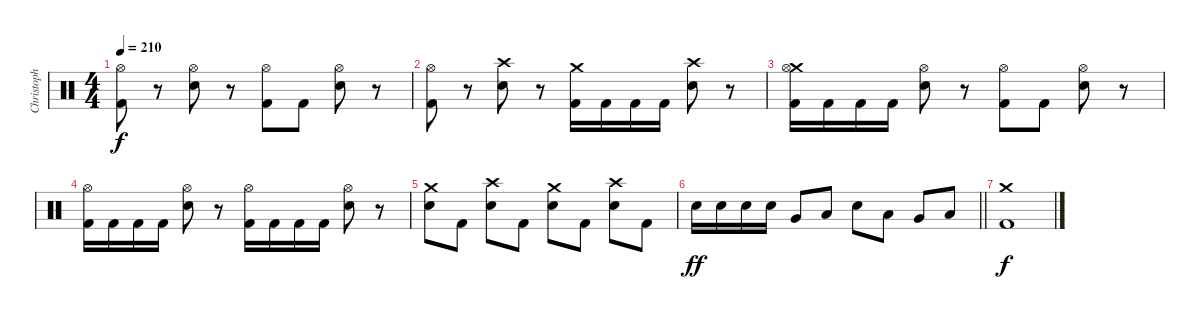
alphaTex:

\track ("Christoph Schneider" "Christoph ") {instrument percussion}
\staff {score}
\articulation defaults
\ts (4 4)
\tempo 210
\clef neutral
\ks c
("Hi-Hat (open)" "Kick (hit) 2").8{dy f} r.8 ("Hi-Hat (open)" "Electric Snare (hit)").8 r.8 ("Hi-Hat (open)" "Kick (hit) 2").8 "Kick (hit) 2".8 ("Hi-Hat (open)" "Electric Snare (hit)").8 r.8 |
("Hi-Hat (open)" "Kick (hit) 2").8 r.8 ("Crash high (hit)" "Electric Snare (hit)").8 r.8 ("Crash medium (hit)" "Kick (hit) 2").16 "Kick (hit) 2".16 "Kick (hit) 2".16 "Kick (hit) 2".16 ("Crash high (hit)" "Electric Snare (hit)").8 r.8 |
("Crash medium (hit)" "Kick (hit) 2" "Hi-Hat (open)").16 "Kick (hit) 2".16 "Kick (hit) 2".16 "Kick (hit) 2".16 ("Hi-Hat (open)" "Electric Snare (hit)").8 r.8 ("Hi-Hat (open)" "Kick (hit) 2").8 "Kick (hit) 2".8 ("Hi-Hat (open)" "Electric Snare (hit)").8 r.8 |
("Hi-Hat (open)" "Kick (hit) 2").16 "Kick (hit) 2".16 "Kick (hit) 2".16 "Kick (hit) 2".16 ("Hi-Hat (open)" "Electric Snare (hit)").8 r.8 ("Hi-Hat (open)" "Kick (hit) 2").16 "Kick (hit) 2".16 "Kick (hit) 2".16 "Kick (hit) 2".16 ("Hi-Hat (open)" "Electric Snare (hit)").8 r.8 |
("Crash medium (hit)" "Electric Snare (hit)").8 "Kick (hit) 2".8 ("Crash high (hit)" "Electric Snare (hit)").8 "Kick (hit) 2".8 ("Crash medium (hit)" "Electric Snare (hit)").8 "Kick (hit) 2".8 ("Crash high (hit)" "Electric Snare (hit)").8 "Kick (hit) 2".8 |
\barLineRight lightlight "Electric Snare (hit)".16{dy ff} "Electric Snare (hit)".16 "Electric Snare (hit)".16 "Electric Snare (hit)".16 "Very Low Tom (hit)".8 "Low Floor Tom (hit)".8 "Electric Snare (hit)".8 "Low Tom (hit)".8 "Very Low Tom (hit)".8 "Low Floor Tom (hit)".8
|
\section ("" "")
("Crash medium (hit)" "Kick (hit) 2").1{dy f}
